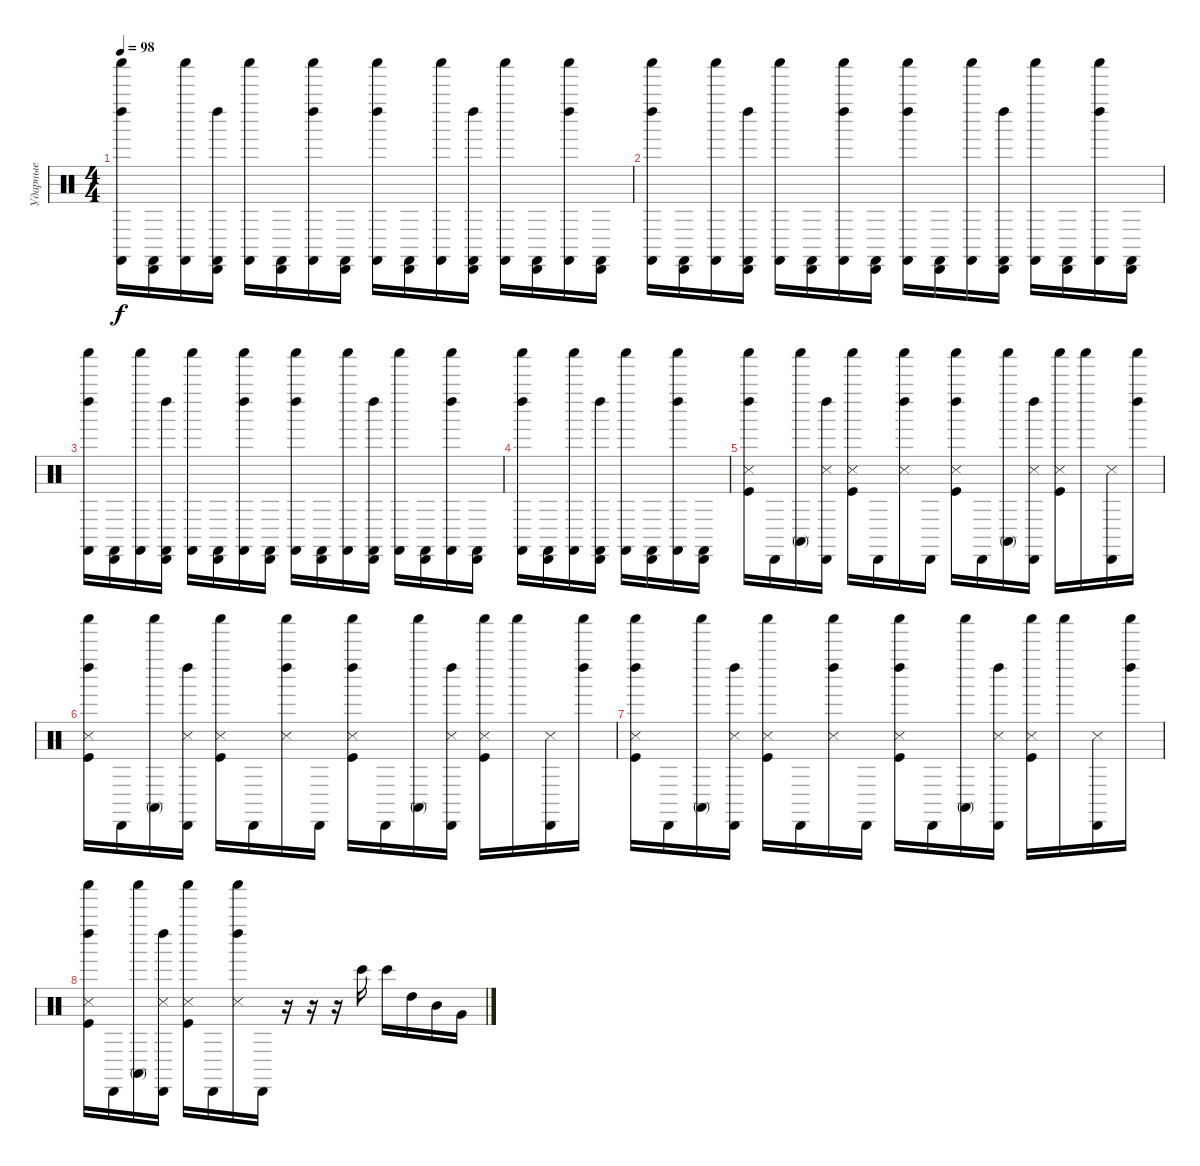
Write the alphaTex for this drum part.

\track ("Ударные" "Ударные") {instrument percussion}
\staff {score}
\articulation defaults
\ts (4 4)
\tempo 98
\clef neutral
\ks c
("Castanets (hit)" "Left Maraca (hit)" "Shaker (hit)").16{dy f} ("Castanets (hit)" "Cabasa (hit)").16 ("Castanets (hit)" "Shaker (hit)").16 ("Castanets (hit)" "Left Maraca (hit)" "Cabasa (hit)").16 ("Castanets (hit)" "Shaker (hit)").16 ("Castanets (hit)" "Cabasa (hit)").16 ("Castanets (hit)" "Left Maraca (hit)" "Shaker (hit)").16 ("Castanets (hit)" "Cabasa (hit)").16 ("Castanets (hit)" "Left Maraca (hit)" "Shaker (hit)").16 ("Castanets (hit)" "Cabasa (hit)").16 ("Castanets (hit)" "Shaker (hit)").16 ("Castanets (hit)" "Left Maraca (hit)" "Cabasa (hit)").16 ("Castanets (hit)" "Shaker (hit)").16 ("Castanets (hit)" "Cabasa (hit)").16 ("Castanets (hit)" "Left Maraca (hit)" "Shaker (hit)").16 ("Castanets (hit)" "Cabasa (hit)").16 |
("Castanets (hit)" "Left Maraca (hit)" "Shaker (hit)").16 ("Castanets (hit)" "Cabasa (hit)").16 ("Castanets (hit)" "Shaker (hit)").16 ("Castanets (hit)" "Left Maraca (hit)" "Cabasa (hit)").16 ("Castanets (hit)" "Shaker (hit)").16 ("Castanets (hit)" "Cabasa (hit)").16 ("Castanets (hit)" "Left Maraca (hit)" "Shaker (hit)").16 ("Castanets (hit)" "Cabasa (hit)").16 ("Castanets (hit)" "Left Maraca (hit)" "Shaker (hit)").16 ("Castanets (hit)" "Cabasa (hit)").16 ("Castanets (hit)" "Shaker (hit)").16 ("Castanets (hit)" "Left Maraca (hit)" "Cabasa (hit)").16 ("Castanets (hit)" "Shaker (hit)").16 ("Castanets (hit)" "Cabasa (hit)").16 ("Castanets (hit)" "Left Maraca (hit)" "Shaker (hit)").16 ("Castanets (hit)" "Cabasa (hit)").16 |
("Castanets (hit)" "Left Maraca (hit)" "Shaker (hit)").16 ("Castanets (hit)" "Cabasa (hit)").16 ("Castanets (hit)" "Shaker (hit)").16 ("Castanets (hit)" "Left Maraca (hit)" "Cabasa (hit)").16 ("Castanets (hit)" "Shaker (hit)").16 ("Castanets (hit)" "Cabasa (hit)").16 ("Castanets (hit)" "Left Maraca (hit)" "Shaker (hit)").16 ("Castanets (hit)" "Cabasa (hit)").16 ("Castanets (hit)" "Left Maraca (hit)" "Shaker (hit)").16 ("Castanets (hit)" "Cabasa (hit)").16 ("Castanets (hit)" "Shaker (hit)").16 ("Castanets (hit)" "Left Maraca (hit)" "Cabasa (hit)").16 ("Castanets (hit)" "Shaker (hit)").16 ("Castanets (hit)" "Cabasa (hit)").16 ("Castanets (hit)" "Left Maraca (hit)" "Shaker (hit)").16 ("Castanets (hit)" "Cabasa (hit)").16 |
("Castanets (hit)" "Left Maraca (hit)" "Shaker (hit)").16 ("Castanets (hit)" "Cabasa (hit)").16 ("Castanets (hit)" "Shaker (hit)").16 ("Castanets (hit)" "Left Maraca (hit)" "Cabasa (hit)").16 ("Castanets (hit)" "Shaker (hit)").16 ("Castanets (hit)" "Cabasa (hit)").16 ("Castanets (hit)" "Left Maraca (hit)" "Shaker (hit)").16 ("Castanets (hit)" "Cabasa (hit)").16 |
("Snare (side stick) 3" "Kick (hit)" "Left Maraca (hit)" "Shaker (hit)").16 "Cabasa (hit)".16 ("Conga high (mute)" "Shaker (hit)").16 ("Snare (side stick) 3" "Left Maraca (hit)" "Cabasa (hit)").16 ("Kick (hit)" "Snare (side stick) 3" "Shaker (hit)").16 "Cabasa (hit)".16 ("Snare (side stick) 3" "Left Maraca (hit)" "Shaker (hit)").16 "Cabasa (hit)".16 ("Snare (side stick) 3" "Kick (hit)" "Left Maraca (hit)" "Shaker (hit)").16 "Cabasa (hit)".16 ("Conga high (mute)" "Shaker (hit)").16 ("Snare (side stick) 3" "Left Maraca (hit)" "Cabasa (hit)").16 ("Kick (hit)" "Snare (side stick) 3" "Shaker (hit)").16 "Shaker (hit)".16 ("Snare (side stick) 3" "Cabasa (hit)").16 ("Left Maraca (hit)" "Shaker (hit)").16 |
("Snare (side stick) 3" "Kick (hit)" "Left Maraca (hit)" "Shaker (hit)").16 "Cabasa (hit)".16 ("Conga high (mute)" "Shaker (hit)").16 ("Snare (side stick) 3" "Left Maraca (hit)" "Cabasa (hit)").16 ("Kick (hit)" "Snare (side stick) 3" "Shaker (hit)").16 "Cabasa (hit)".16 ("Snare (side stick) 3" "Left Maraca (hit)" "Shaker (hit)").16 "Cabasa (hit)".16 ("Snare (side stick) 3" "Kick (hit)" "Left Maraca (hit)" "Shaker (hit)").16 "Cabasa (hit)".16 ("Conga high (mute)" "Shaker (hit)").16 ("Snare (side stick) 3" "Left Maraca (hit)" "Cabasa (hit)").16 ("Kick (hit)" "Snare (side stick) 3" "Shaker (hit)").16 "Shaker (hit)".16 ("Snare (side stick) 3" "Cabasa (hit)").16 ("Left Maraca (hit)" "Shaker (hit)").16 |
("Snare (side stick) 3" "Kick (hit)" "Left Maraca (hit)" "Shaker (hit)").16 "Cabasa (hit)".16 ("Conga high (mute)" "Shaker (hit)").16 ("Snare (side stick) 3" "Left Maraca (hit)" "Cabasa (hit)").16 ("Kick (hit)" "Snare (side stick) 3" "Shaker (hit)").16 "Cabasa (hit)".16 ("Snare (side stick) 3" "Left Maraca (hit)" "Shaker (hit)").16 "Cabasa (hit)".16 ("Snare (side stick) 3" "Kick (hit)" "Left Maraca (hit)" "Shaker (hit)").16 "Cabasa (hit)".16 ("Conga high (mute)" "Shaker (hit)").16 ("Snare (side stick) 3" "Left Maraca (hit)" "Cabasa (hit)").16 ("Kick (hit)" "Snare (side stick) 3" "Shaker (hit)").16 "Shaker (hit)".16 ("Snare (side stick) 3" "Cabasa (hit)").16 ("Left Maraca (hit)" "Shaker (hit)").16 |
("Snare (side stick) 3" "Kick (hit)" "Left Maraca (hit)" "Shaker (hit)").16 "Cabasa (hit)".16 ("Conga high (mute)" "Shaker (hit)").16 ("Snare (side stick) 3" "Left Maraca (hit)" "Cabasa (hit)").16 ("Kick (hit)" "Snare (side stick) 3" "Shaker (hit)").16 "Cabasa (hit)".16 ("Snare (side stick) 3" "Left Maraca (hit)" "Shaker (hit)").16 "Cabasa (hit)".16 r.16 r.16 r.16 "Bongo High (hit)".16 "Bongo High (hit)".16 "High Tom (hit)".16 "Mid Tom (hit)".16 "Very Low Tom (hit)".16
